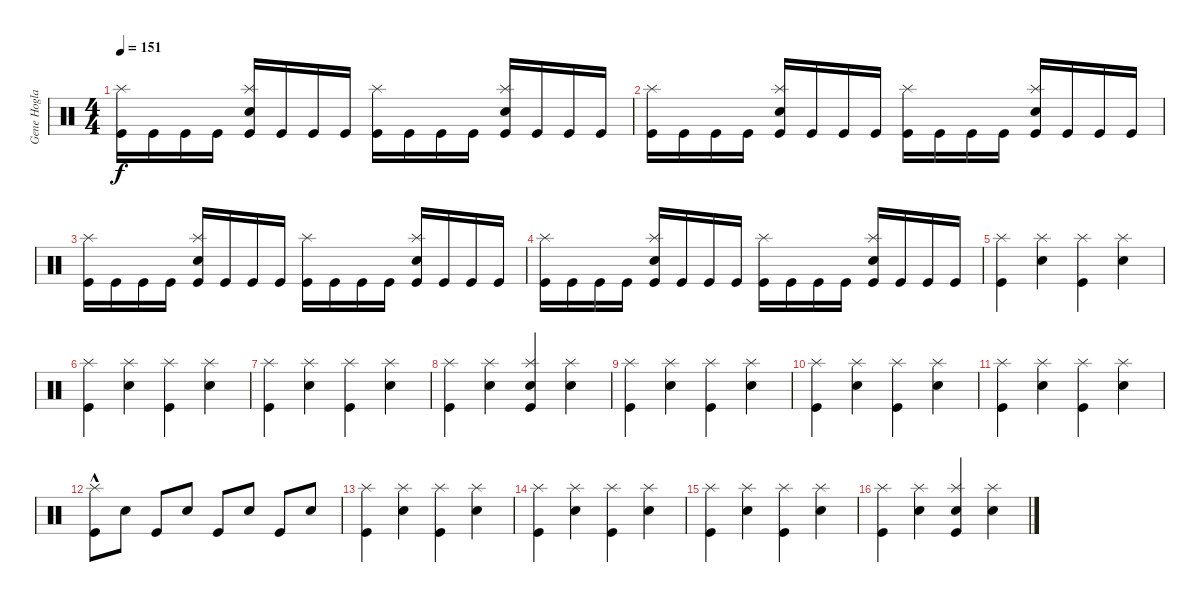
\track ("Gene Hoglan" "Gene Hogla") {instrument percussion}
\staff {score}
\articulation defaults
\ts (4 4)
\tempo 151
\clef neutral
\ks c
("Kick (hit)" "Splash (hit)").16{dy f} "Kick (hit)".16 "Kick (hit)".16 "Kick (hit)".16 ("Snare (hit) 2" "Kick (hit)" "Splash (hit)").16 "Kick (hit)".16 "Kick (hit)".16 "Kick (hit)".16 ("Kick (hit)" "Splash (hit)").16 "Kick (hit)".16 "Kick (hit)".16 "Kick (hit)".16 ("Snare (hit) 2" "Kick (hit)" "Splash (hit)").16 "Kick (hit)".16 "Kick (hit)".16 "Kick (hit)".16 |
("Splash (hit)" "Kick (hit)").16 "Kick (hit)".16 "Kick (hit)".16 "Kick (hit)".16 ("Splash (hit)" "Kick (hit)" "Snare (hit) 2").16 "Kick (hit)".16 "Kick (hit)".16 "Kick (hit)".16 ("Splash (hit)" "Kick (hit)").16 "Kick (hit)".16 "Kick (hit)".16 "Kick (hit)".16 ("Splash (hit)" "Kick (hit)" "Snare (hit) 2").16 "Kick (hit)".16 "Kick (hit)".16 "Kick (hit)".16 |
("Splash (hit)" "Kick (hit)").16 "Kick (hit)".16 "Kick (hit)".16 "Kick (hit)".16 ("Splash (hit)" "Kick (hit)" "Snare (hit) 2").16 "Kick (hit)".16 "Kick (hit)".16 "Kick (hit)".16 ("Splash (hit)" "Kick (hit)").16 "Kick (hit)".16 "Kick (hit)".16 "Kick (hit)".16 ("Splash (hit)" "Kick (hit)" "Snare (hit) 2").16 "Kick (hit)".16 "Kick (hit)".16 "Kick (hit)".16 |
("Splash (hit)" "Kick (hit)").16 "Kick (hit)".16 "Kick (hit)".16 "Kick (hit)".16 ("Splash (hit)" "Kick (hit)" "Snare (hit) 2").16 "Kick (hit)".16 "Kick (hit)".16 "Kick (hit)".16 ("Splash (hit)" "Kick (hit)").16 "Kick (hit)".16 "Kick (hit)".16 "Kick (hit)".16 ("Splash (hit)" "Kick (hit)" "Snare (hit) 2").16 "Kick (hit)".16 "Kick (hit)".16 "Kick (hit)".16 |
("Splash (hit)" "Kick (hit)").4 ("Splash (hit)" "Snare (hit) 2").4 ("Splash (hit)" "Kick (hit)").4 ("Splash (hit)" "Snare (hit) 2").4 |
("Splash (hit)" "Kick (hit)").4 ("Splash (hit)" "Snare (hit) 2").4 ("Splash (hit)" "Kick (hit)").4 ("Splash (hit)" "Snare (hit) 2").4 |
("Splash (hit)" "Kick (hit)").4 ("Splash (hit)" "Snare (hit) 2").4 ("Splash (hit)" "Kick (hit)").4 ("Splash (hit)" "Snare (hit) 2").4 |
("Splash (hit)" "Kick (hit)").4 ("Splash (hit)" "Snare (hit) 2").4 ("Splash (hit)" "Kick (hit)" "Snare (hit) 2").4 ("Splash (hit)" "Snare (hit) 2").4 |
("Splash (hit)" "Kick (hit)").4 ("Splash (hit)" "Snare (hit) 2").4 ("Splash (hit)" "Kick (hit)").4 ("Splash (hit)" "Snare (hit) 2").4 |
("Splash (hit)" "Kick (hit)").4 ("Splash (hit)" "Snare (hit) 2").4 ("Splash (hit)" "Kick (hit)").4 ("Splash (hit)" "Snare (hit) 2").4 |
("Splash (hit)" "Kick (hit)").4 ("Splash (hit)" "Snare (hit) 2").4 ("Splash (hit)" "Kick (hit)").4 ("Splash (hit)" "Snare (hit) 2").4 |
("Splash (hit)"{hac} "Kick (hit)").8 "Snare (hit) 2".8 "Kick (hit)".8 "Snare (hit) 2".8 "Kick (hit)".8 "Snare (hit) 2".8 "Kick (hit)".8 "Snare (hit) 2".8 |
("Kick (hit)" "Splash (hit)").4 ("Snare (hit) 2" "Splash (hit)").4 ("Kick (hit)" "Splash (hit)").4 ("Snare (hit) 2" "Splash (hit)").4 |
("Kick (hit)" "Splash (hit)").4 ("Snare (hit) 2" "Splash (hit)").4 ("Kick (hit)" "Splash (hit)").4 ("Snare (hit) 2" "Splash (hit)").4 |
("Kick (hit)" "Splash (hit)").4 ("Snare (hit) 2" "Splash (hit)").4 ("Kick (hit)" "Splash (hit)").4 ("Snare (hit) 2" "Splash (hit)").4 |
("Kick (hit)" "Splash (hit)").4 ("Snare (hit) 2" "Splash (hit)").4 ("Snare (hit) 2" "Kick (hit)" "Splash (hit)").4 ("Snare (hit) 2" "Splash (hit)").4
